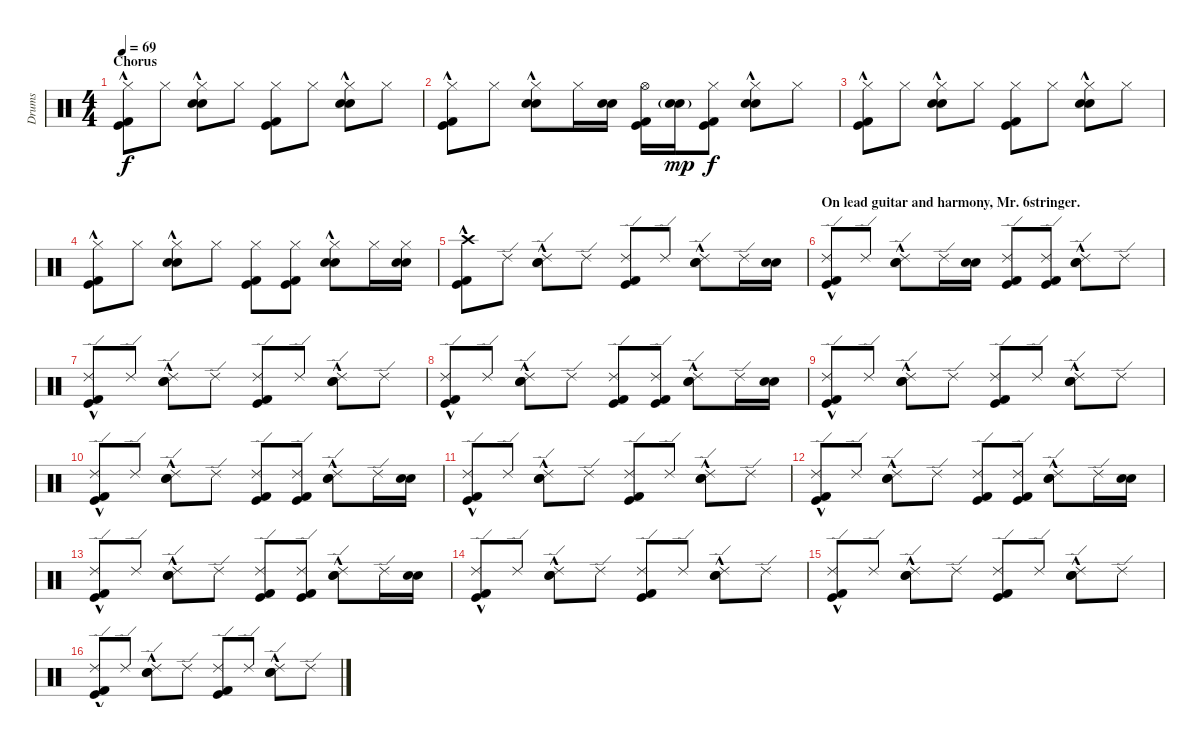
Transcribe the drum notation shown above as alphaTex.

\track ("Drums" "Drums") {instrument percussion}
\staff {score}
\articulation defaults
\ts (4 4)
\section ("" "Chorus")
\tempo 69
\clef neutral
\ks c
("Hi-Hat (closed)"{hac} "Kick (hit) 2" "Kick (hit)").8{dy f} "Hi-Hat (closed)".8 ("Hi-Hat (closed)"{hac} "Snare (hit) 2" "Electric Snare (hit)").8 "Hi-Hat (closed)".8 ("Hi-Hat (closed)" "Kick (hit) 2" "Kick (hit)").8 "Hi-Hat (closed)".8 ("Hi-Hat (closed)"{hac} "Snare (hit) 2" "Electric Snare (hit)").8 "Hi-Hat (closed)".8 |
("Hi-Hat (closed)"{hac} "Kick (hit) 2" "Kick (hit)").8 "Hi-Hat (closed)".8 ("Hi-Hat (closed)"{hac} "Snare (hit) 2" "Electric Snare (hit)").8 "Hi-Hat (closed)".16 ("Snare (hit) 2" "Electric Snare (hit)").16 ("Hi-Hat (open)" "Kick (hit) 2" "Kick (hit)").16 ("Snare (hit) 2"{g} "Electric Snare (hit)"{g}).16{dy mp} ("Hi-Hat (closed)" "Kick (hit) 2" "Kick (hit)").8{dy f} ("Hi-Hat (closed)"{hac} "Snare (hit) 2" "Electric Snare (hit)").8 "Hi-Hat (closed)".8 |
("Hi-Hat (closed)"{hac} "Kick (hit) 2" "Kick (hit)").8 "Hi-Hat (closed)".8 ("Hi-Hat (closed)"{hac} "Snare (hit) 2" "Electric Snare (hit)").8 "Hi-Hat (closed)".8 ("Hi-Hat (closed)" "Kick (hit) 2" "Kick (hit)").8 "Hi-Hat (closed)".8 ("Hi-Hat (closed)"{hac} "Snare (hit) 2" "Electric Snare (hit)").8 "Hi-Hat (closed)".8 |
("Hi-Hat (closed)"{hac} "Kick (hit) 2" "Kick (hit)").8 "Hi-Hat (closed)".8 ("Hi-Hat (closed)"{hac} "Snare (hit) 2" "Electric Snare (hit)").8 "Hi-Hat (closed)".8 ("Hi-Hat (closed)" "Kick (hit) 2" "Kick (hit)").8 ("Hi-Hat (closed)" "Kick (hit) 2" "Kick (hit)").8 ("Hi-Hat (closed)"{hac} "Snare (hit) 2" "Electric Snare (hit)").8 "Hi-Hat (closed)".16 ("Hi-Hat (closed)" "Snare (hit) 2" "Electric Snare (hit)").16 |
("Crash high (hit)"{hac} "Kick (hit) 2" "Kick (hit)").8 "Ride (edge) 2".8 ("Ride (edge) 2"{hac} "Snare (hit) 2" "Electric Snare (hit)").8 "Ride (edge) 2".8 ("Ride (edge) 2" "Kick (hit) 2" "Kick (hit)").8 "Ride (edge) 2".8 ("Ride (edge) 2"{hac} "Snare (hit) 2" "Electric Snare (hit)").8 "Ride (edge) 2".16 ("Snare (hit) 2" "Electric Snare (hit)").16 |
\section ("" "On lead guitar and harmony, Mr. 6stringer.")
("Ride (edge) 2"{hac} "Kick (hit) 2" "Kick (hit)").8 "Ride (edge) 2".8 ("Ride (edge) 2"{hac} "Snare (hit) 2" "Electric Snare (hit)").8 "Ride (edge) 2".16 ("Snare (hit) 2" "Electric Snare (hit)").16 ("Ride (edge) 2" "Kick (hit) 2" "Kick (hit)").8 ("Ride (edge) 2" "Kick (hit) 2" "Kick (hit)").8 ("Ride (edge) 2"{hac} "Snare (hit) 2" "Electric Snare (hit)").8 "Ride (edge) 2".8 |
("Ride (edge) 2"{hac} "Kick (hit) 2" "Kick (hit)").8 "Ride (edge) 2".8 ("Ride (edge) 2"{hac} "Snare (hit) 2" "Electric Snare (hit)").8 "Ride (edge) 2".8 ("Ride (edge) 2" "Kick (hit) 2" "Kick (hit)").8 "Ride (edge) 2".8 ("Ride (edge) 2"{hac} "Snare (hit) 2" "Electric Snare (hit)").8 "Ride (edge) 2".8 |
("Ride (edge) 2"{hac} "Kick (hit) 2" "Kick (hit)").8 "Ride (edge) 2".8 ("Ride (edge) 2"{hac} "Snare (hit) 2" "Electric Snare (hit)").8 "Ride (edge) 2".8 ("Ride (edge) 2" "Kick (hit) 2" "Kick (hit)").8 ("Ride (edge) 2" "Kick (hit) 2" "Kick (hit)").8 ("Ride (edge) 2"{hac} "Snare (hit) 2" "Electric Snare (hit)").8 "Ride (edge) 2".16 ("Snare (hit) 2" "Electric Snare (hit)").16 |
("Ride (edge) 2"{hac} "Kick (hit) 2" "Kick (hit)").8 "Ride (edge) 2".8 ("Ride (edge) 2"{hac} "Snare (hit) 2" "Electric Snare (hit)").8 "Ride (edge) 2".8 ("Ride (edge) 2" "Kick (hit) 2" "Kick (hit)").8 "Ride (edge) 2".8 ("Ride (edge) 2"{hac} "Snare (hit) 2" "Electric Snare (hit)").8 "Ride (edge) 2".8 |
("Ride (edge) 2"{hac} "Kick (hit) 2" "Kick (hit)").8 "Ride (edge) 2".8 ("Ride (edge) 2"{hac} "Snare (hit) 2" "Electric Snare (hit)").8 "Ride (edge) 2".8 ("Ride (edge) 2" "Kick (hit) 2" "Kick (hit)").8 ("Ride (edge) 2" "Kick (hit) 2" "Kick (hit)").8 ("Ride (edge) 2"{hac} "Snare (hit) 2" "Electric Snare (hit)").8 "Ride (edge) 2".16 ("Snare (hit) 2" "Electric Snare (hit)").16 |
("Ride (edge) 2"{hac} "Kick (hit) 2" "Kick (hit)").8 "Ride (edge) 2".8 ("Ride (edge) 2"{hac} "Snare (hit) 2" "Electric Snare (hit)").8 "Ride (edge) 2".8 ("Ride (edge) 2" "Kick (hit) 2" "Kick (hit)").8 "Ride (edge) 2".8 ("Ride (edge) 2"{hac} "Snare (hit) 2" "Electric Snare (hit)").8 "Ride (edge) 2".8 |
("Ride (edge) 2"{hac} "Kick (hit) 2" "Kick (hit)").8 "Ride (edge) 2".8 ("Ride (edge) 2"{hac} "Snare (hit) 2" "Electric Snare (hit)").8 "Ride (edge) 2".8 ("Ride (edge) 2" "Kick (hit) 2" "Kick (hit)").8 ("Ride (edge) 2" "Kick (hit) 2" "Kick (hit)").8 ("Ride (edge) 2"{hac} "Snare (hit) 2" "Electric Snare (hit)").8 "Ride (edge) 2".16 ("Snare (hit) 2" "Electric Snare (hit)").16 |
("Ride (edge) 2"{hac} "Kick (hit) 2" "Kick (hit)").8 "Ride (edge) 2".8 ("Ride (edge) 2"{hac} "Snare (hit) 2" "Electric Snare (hit)").8 "Ride (edge) 2".8 ("Ride (edge) 2" "Kick (hit) 2" "Kick (hit)").8 ("Ride (edge) 2" "Kick (hit) 2" "Kick (hit)").8 ("Ride (edge) 2"{hac} "Snare (hit) 2" "Electric Snare (hit)").8 "Ride (edge) 2".16 ("Snare (hit) 2" "Electric Snare (hit)").16 |
("Ride (edge) 2"{hac} "Kick (hit) 2" "Kick (hit)").8 "Ride (edge) 2".8 ("Ride (edge) 2"{hac} "Snare (hit) 2" "Electric Snare (hit)").8 "Ride (edge) 2".8 ("Ride (edge) 2" "Kick (hit) 2" "Kick (hit)").8 "Ride (edge) 2".8 ("Ride (edge) 2"{hac} "Snare (hit) 2" "Electric Snare (hit)").8 "Ride (edge) 2".8 |
("Ride (edge) 2"{hac} "Kick (hit) 2" "Kick (hit)").8 "Ride (edge) 2".8 ("Ride (edge) 2"{hac} "Snare (hit) 2" "Electric Snare (hit)").8 "Ride (edge) 2".8 ("Ride (edge) 2" "Kick (hit) 2" "Kick (hit)").8 "Ride (edge) 2".8 ("Ride (edge) 2"{hac} "Snare (hit) 2" "Electric Snare (hit)").8 "Ride (edge) 2".8 |
("Ride (edge) 2"{hac} "Kick (hit) 2" "Kick (hit)").8 "Ride (edge) 2".8 ("Ride (edge) 2"{hac} "Snare (hit) 2" "Electric Snare (hit)").8 "Ride (edge) 2".8 ("Ride (edge) 2" "Kick (hit) 2" "Kick (hit)").8 "Ride (edge) 2".8 ("Ride (edge) 2"{hac} "Snare (hit) 2" "Electric Snare (hit)").8 "Ride (edge) 2".8
